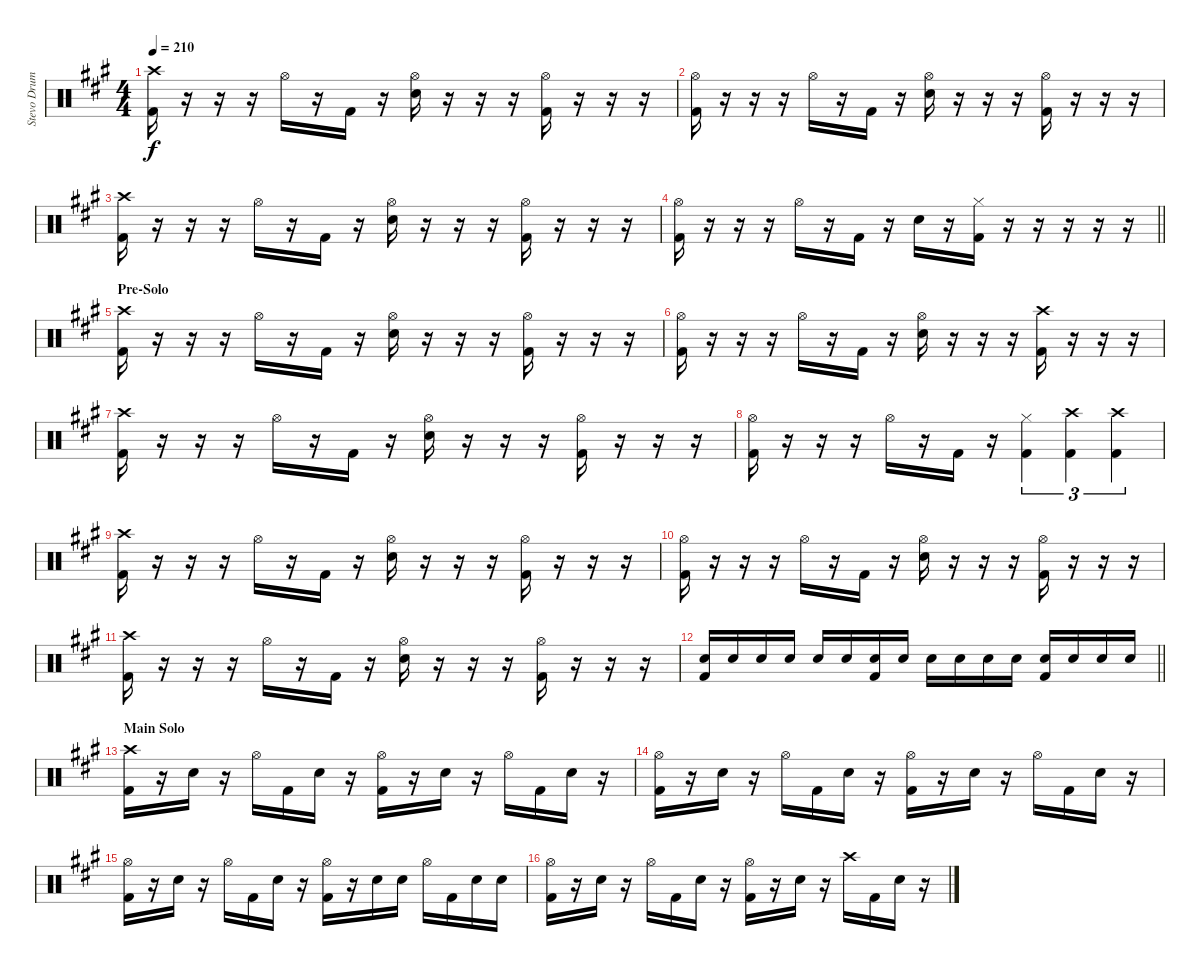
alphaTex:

\track ("Stevo Drums" "Stevo Drum") {instrument percussion}
\staff {score}
\articulation defaults
\ts (4 4)
\tempo 210
\clef neutral
\ks a
("Crash high (hit)" "Kick (hit) 2").16{dy f} r.16 r.16 r.16 "Hi-Hat (open)".16 r.16 "Kick (hit) 2".16 r.16 ("Hi-Hat (open)" "Snare (hit) 2").16 r.16 r.16 r.16 ("Hi-Hat (open)" "Kick (hit) 2").16 r.16 r.16 r.16 |
("Hi-Hat (open)" "Kick (hit) 2").16 r.16 r.16 r.16 "Hi-Hat (open)".16 r.16 "Kick (hit) 2".16 r.16 ("Hi-Hat (open)" "Snare (hit) 2").16 r.16 r.16 r.16 ("Hi-Hat (open)" "Kick (hit) 2").16 r.16 r.16 r.16 |
("Crash high (hit)" "Kick (hit) 2").16 r.16 r.16 r.16 "Hi-Hat (open)".16 r.16 "Kick (hit) 2".16 r.16 ("Hi-Hat (open)" "Snare (hit) 2").16 r.16 r.16 r.16 ("Hi-Hat (open)" "Kick (hit) 2").16 r.16 r.16 r.16 |
\barLineRight lightlight
("Hi-Hat (open)" "Kick (hit) 2").16 r.16 r.16 r.16 "Hi-Hat (open)".16 r.16 "Kick (hit) 2".16 r.16 "Snare (hit) 2".16 r.16 ("Hi-Hat (closed)" "Kick (hit) 2").16 r.16 r.16 r.16 r.16 r.16 |
\section ("" "Pre-Solo")
("Crash high (hit)" "Kick (hit) 2").16 r.16 r.16 r.16 "Hi-Hat (open)".16 r.16 "Kick (hit) 2".16 r.16 ("Hi-Hat (open)" "Snare (hit) 2").16 r.16 r.16 r.16 ("Hi-Hat (open)" "Kick (hit) 2").16 r.16 r.16 r.16 |
("Hi-Hat (open)" "Kick (hit) 2").16 r.16 r.16 r.16 "Hi-Hat (open)".16 r.16 "Kick (hit) 2".16 r.16 ("Hi-Hat (open)" "Snare (hit) 2").16 r.16 r.16 r.16 ("Crash high (hit)" "Kick (hit) 2").16 r.16 r.16 r.16 |
("Crash high (hit)" "Kick (hit) 2").16 r.16 r.16 r.16 "Hi-Hat (open)".16 r.16 "Kick (hit) 2".16 r.16 ("Hi-Hat (open)" "Snare (hit) 2").16 r.16 r.16 r.16 ("Hi-Hat (open)" "Kick (hit) 2").16 r.16 r.16 r.16 |
("Hi-Hat (open)" "Kick (hit) 2").16 r.16 r.16 r.16 "Hi-Hat (open)".16 r.16 "Kick (hit) 2".16 r.16 ("Hi-Hat (closed)" "Kick (hit) 2").4{tu (3 2)} ("Crash high (hit)" "Kick (hit) 2").4{tu (3 2)} ("Crash high (hit)" "Kick (hit) 2").4{tu (3 2)} |
("Crash high (hit)" "Kick (hit) 2").16 r.16 r.16 r.16 "Hi-Hat (open)".16 r.16 "Kick (hit) 2".16 r.16 ("Hi-Hat (open)" "Snare (hit) 2").16 r.16 r.16 r.16 ("Hi-Hat (open)" "Kick (hit) 2").16 r.16 r.16 r.16 |
("Hi-Hat (open)" "Kick (hit) 2").16 r.16 r.16 r.16 "Hi-Hat (open)".16 r.16 "Kick (hit) 2".16 r.16 ("Hi-Hat (open)" "Snare (hit) 2").16 r.16 r.16 r.16 ("Hi-Hat (open)" "Kick (hit) 2").16 r.16 r.16 r.16 |
("Crash high (hit)" "Kick (hit) 2").16 r.16 r.16 r.16 "Hi-Hat (open)".16 r.16 "Kick (hit) 2".16 r.16 ("Hi-Hat (open)" "Snare (hit) 2").16 r.16 r.16 r.16 ("Hi-Hat (open)" "Kick (hit) 2").16 r.16 r.16 r.16 |
\barLineRight lightlight
("Snare (hit) 2" "Kick (hit) 2").16 "Snare (hit) 2".16 "Snare (hit) 2".16 "Snare (hit) 2".16 "Snare (hit) 2".16 "Snare (hit) 2".16 ("Snare (hit) 2" "Kick (hit) 2").16 "Snare (hit) 2".16 "Snare (hit) 2".16 "Snare (hit) 2".16 "Snare (hit) 2".16 "Snare (hit) 2".16 ("Snare (hit) 2" "Kick (hit) 2").16 "Snare (hit) 2".16 "Snare (hit) 2".16 "Snare (hit) 2".16 |
\section ("" "Main Solo")
("Crash high (hit)" "Kick (hit) 2").16 r.16 "Snare (hit) 2".16 r.16 "Hi-Hat (open)".16 "Kick (hit) 2".16 "Snare (hit) 2".16 r.16 ("Hi-Hat (open)" "Kick (hit) 2").16 r.16 "Snare (hit) 2".16 r.16 "Hi-Hat (open)".16 "Kick (hit) 2".16 "Snare (hit) 2".16 r.16 |
("Hi-Hat (open)" "Kick (hit) 2").16 r.16 "Snare (hit) 2".16 r.16 "Hi-Hat (open)".16 "Kick (hit) 2".16 "Snare (hit) 2".16 r.16 ("Hi-Hat (open)" "Kick (hit) 2").16 r.16 "Snare (hit) 2".16 r.16 "Hi-Hat (open)".16 "Kick (hit) 2".16 "Snare (hit) 2".16 r.16 |
("Hi-Hat (open)" "Kick (hit) 2").16 r.16 "Snare (hit) 2".16 r.16 "Hi-Hat (open)".16 "Kick (hit) 2".16 "Snare (hit) 2".16 r.16 ("Hi-Hat (open)" "Kick (hit) 2").16 r.16 "Snare (hit) 2".16 "Snare (hit) 2".16 "Hi-Hat (open)".16 "Kick (hit) 2".16 "Snare (hit) 2".16 "Snare (hit) 2".16 |
("Hi-Hat (open)" "Kick (hit) 2").16 r.16 "Snare (hit) 2".16 r.16 "Hi-Hat (open)".16 "Kick (hit) 2".16 "Snare (hit) 2".16 r.16 ("Hi-Hat (open)" "Kick (hit) 2").16 r.16 "Snare (hit) 2".16 r.16 "Crash high (hit)".16 "Kick (hit) 2".16 "Snare (hit) 2".16 r.16
